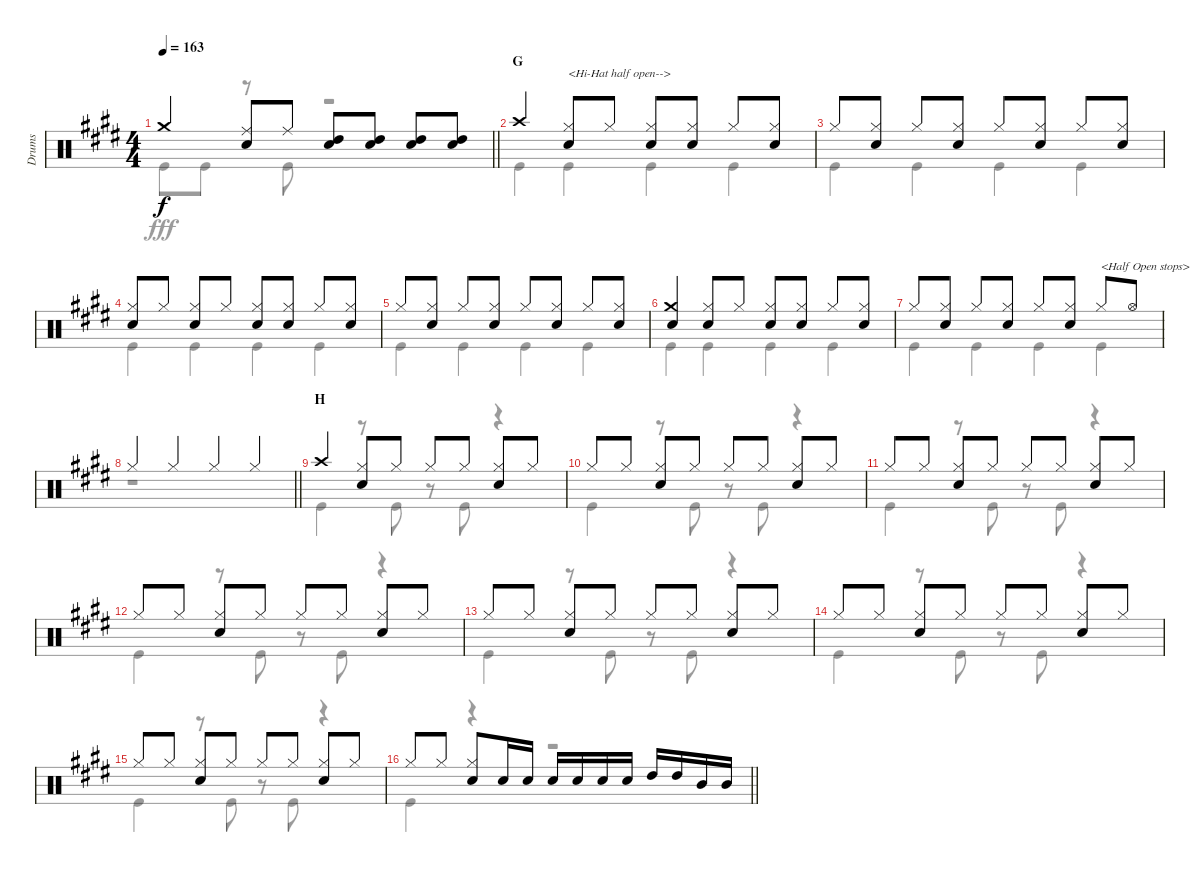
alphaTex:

\track ("Drums" "Drums") {instrument percussion}
\staff {score}
\articulation defaults
\voice
\ts (4 4)
\tempo 163
\clef neutral
\barLineRight lightlight
\ks e "Crash medium (hit)".4{dy f}
("Ride (middle)" "Snare (hit) 2").8 "Ride (middle)".8 ("High Tom (hit)" "Snare (hit) 2").8 ("High Tom (hit)" "Snare (hit) 2").8 ("High Tom (hit)" "Snare (hit) 2").8 ("High Tom (hit)" "Snare (hit) 2").8 |
\section ("" "G")
"Crash high (hit)".4 ("Hi-Hat (closed)" "Snare (hit) 2").8{txt "<Hi-Hat half open-->"} "Hi-Hat (closed)".8 ("Hi-Hat (closed)" "Snare (hit) 2").8 ("Hi-Hat (closed)" "Snare (hit) 2").8 "Hi-Hat (closed)".8 ("Hi-Hat (closed)" "Snare (hit) 2").8 |
"Hi-Hat (closed)".8 ("Hi-Hat (closed)" "Snare (hit) 2").8 "Hi-Hat (closed)".8 ("Hi-Hat (closed)" "Snare (hit) 2").8 "Hi-Hat (closed)".8 ("Hi-Hat (closed)" "Snare (hit) 2").8 "Hi-Hat (closed)".8 ("Hi-Hat (closed)" "Snare (hit) 2").8 |
("Hi-Hat (closed)" "Snare (hit) 2").8 "Hi-Hat (closed)".8 ("Hi-Hat (closed)" "Snare (hit) 2").8 "Hi-Hat (closed)".8 ("Hi-Hat (closed)" "Snare (hit) 2").8 ("Hi-Hat (closed)" "Snare (hit) 2").8 "Hi-Hat (closed)".8 ("Hi-Hat (closed)" "Snare (hit) 2").8 |
"Hi-Hat (closed)".8 ("Hi-Hat (closed)" "Snare (hit) 2").8 "Hi-Hat (closed)".8 ("Hi-Hat (closed)" "Snare (hit) 2").8 "Hi-Hat (closed)".8 ("Hi-Hat (closed)" "Snare (hit) 2").8 "Hi-Hat (closed)".8 ("Hi-Hat (closed)" "Snare (hit) 2").8 |
("Crash medium (hit)" "Snare (hit) 2").4 ("Hi-Hat (closed)" "Snare (hit) 2").8 "Hi-Hat (closed)".8 ("Hi-Hat (closed)" "Snare (hit) 2").8 ("Hi-Hat (closed)" "Snare (hit) 2").8 "Hi-Hat (closed)".8 ("Hi-Hat (closed)" "Snare (hit) 2").8 |
"Hi-Hat (closed)".8 ("Hi-Hat (closed)" "Snare (hit) 2").8 "Hi-Hat (closed)".8 ("Hi-Hat (closed)" "Snare (hit) 2").8 "Hi-Hat (closed)".8 ("Hi-Hat (closed)" "Snare (hit) 2").8 "Hi-Hat (closed)".8{txt "<Half Open stops>"} "Hi-Hat (open)".8 |
\barLineRight lightlight "Hi-Hat (closed)".4 "Hi-Hat (closed)".4 "Hi-Hat (closed)".4 "Hi-Hat (closed)".4
|
\section ("" "H")
"Crash high (hit)".4 ("Hi-Hat (closed)" "Snare (hit) 2").8 "Hi-Hat (closed)".8 "Hi-Hat (closed)".8 "Hi-Hat (closed)".8 ("Hi-Hat (closed)" "Snare (hit) 2").8 "Hi-Hat (closed)".8 |
"Hi-Hat (closed)".8 "Hi-Hat (closed)".8 ("Hi-Hat (closed)" "Snare (hit) 2").8 "Hi-Hat (closed)".8 "Hi-Hat (closed)".8 "Hi-Hat (closed)".8 ("Hi-Hat (closed)" "Snare (hit) 2").8 "Hi-Hat (closed)".8 |
"Hi-Hat (closed)".8 "Hi-Hat (closed)".8 ("Hi-Hat (closed)" "Snare (hit) 2").8 "Hi-Hat (closed)".8 "Hi-Hat (closed)".8 "Hi-Hat (closed)".8 ("Hi-Hat (closed)" "Snare (hit) 2").8 "Hi-Hat (closed)".8 |
"Hi-Hat (closed)".8 "Hi-Hat (closed)".8 ("Hi-Hat (closed)" "Snare (hit) 2").8 "Hi-Hat (closed)".8 "Hi-Hat (closed)".8 "Hi-Hat (closed)".8 ("Hi-Hat (closed)" "Snare (hit) 2").8 "Hi-Hat (closed)".8 |
"Hi-Hat (closed)".8 "Hi-Hat (closed)".8 ("Hi-Hat (closed)" "Snare (hit) 2").8 "Hi-Hat (closed)".8 "Hi-Hat (closed)".8 "Hi-Hat (closed)".8 ("Hi-Hat (closed)" "Snare (hit) 2").8 "Hi-Hat (closed)".8 |
"Hi-Hat (closed)".8 "Hi-Hat (closed)".8 ("Hi-Hat (closed)" "Snare (hit) 2").8 "Hi-Hat (closed)".8 "Hi-Hat (closed)".8 "Hi-Hat (closed)".8 ("Hi-Hat (closed)" "Snare (hit) 2").8 "Hi-Hat (closed)".8 |
"Hi-Hat (closed)".8 "Hi-Hat (closed)".8 ("Hi-Hat (closed)" "Snare (hit) 2").8 "Hi-Hat (closed)".8 "Hi-Hat (closed)".8 "Hi-Hat (closed)".8 ("Hi-Hat (closed)" "Snare (hit) 2").8 "Hi-Hat (closed)".8 |
\barLineRight lightlight "Hi-Hat (closed)".8 "Hi-Hat (closed)".8
("Hi-Hat (closed)" "Snare (hit) 2").8 "Snare (hit) 2".16 "Snare (hit) 2".16 "Snare (hit) 2".16 "Snare (hit) 2".16 "Snare (hit) 2".16 "Snare (hit) 2".16 "High Tom (hit)".16 "High Tom (hit)".16 "Mid Tom (hit)".16 "Mid Tom (hit)".16
\voice
\clef neutral
\ottava regular
\simile none
\barLineRight lightlight
\ks e "Kick (hit)".8{dy fff} "Kick (hit)".8
r.8 "Kick (hit)".8 r.2 |
"Kick (hit)".4 "Kick (hit)".4 "Kick (hit)".4 "Kick (hit)".4 |
"Kick (hit)".4 "Kick (hit)".4 "Kick (hit)".4 "Kick (hit)".4 |
"Kick (hit)".4 "Kick (hit)".4 "Kick (hit)".4 "Kick (hit)".4 |
"Kick (hit)".4 "Kick (hit)".4 "Kick (hit)".4 "Kick (hit)".4 |
"Kick (hit)".4 "Kick (hit)".4 "Kick (hit)".4 "Kick (hit)".4 |
"Kick (hit)".4 "Kick (hit)".4 "Kick (hit)".4 "Kick (hit)".4 |
\barLineRight lightlight
r.1 |
"Kick (hit)".4 r.8 "Kick (hit)".8 r.8 "Kick (hit)".8 r.4 |
"Kick (hit)".4 r.8 "Kick (hit)".8 r.8 "Kick (hit)".8 r.4 |
"Kick (hit)".4 r.8 "Kick (hit)".8 r.8 "Kick (hit)".8 r.4 |
"Kick (hit)".4 r.8 "Kick (hit)".8 r.8 "Kick (hit)".8 r.4 |
"Kick (hit)".4 r.8 "Kick (hit)".8 r.8 "Kick (hit)".8 r.4 |
"Kick (hit)".4 r.8 "Kick (hit)".8 r.8 "Kick (hit)".8 r.4 |
"Kick (hit)".4 r.8 "Kick (hit)".8 r.8 "Kick (hit)".8 r.4 |
\barLineRight lightlight "Kick (hit)".4
r.4 r.2
